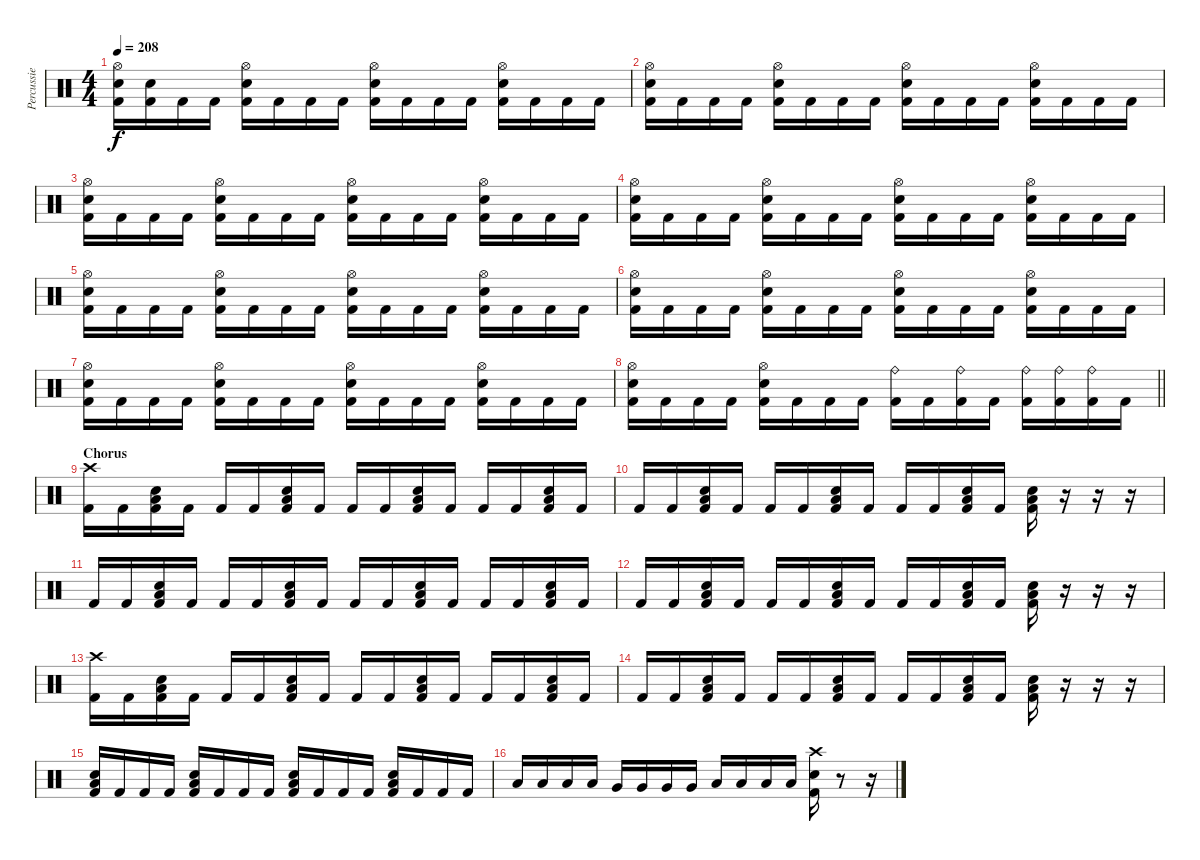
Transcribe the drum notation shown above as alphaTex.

\track ("Percussie" "Percussie") {instrument percussion}
\staff {score}
\articulation defaults
\ts (4 4)
\tempo 208
\clef neutral
\ks c
("Hi-Hat (open)" "Electric Snare (hit)" "Kick (hit) 2").16{dy f} ("Electric Snare (hit)" "Kick (hit) 2").16 "Kick (hit) 2".16 "Kick (hit) 2".16 ("Hi-Hat (open)" "Electric Snare (hit)" "Kick (hit) 2").16 "Kick (hit) 2".16 "Kick (hit) 2".16 "Kick (hit) 2".16 ("Hi-Hat (open)" "Electric Snare (hit)" "Kick (hit) 2").16 "Kick (hit) 2".16 "Kick (hit) 2".16 "Kick (hit) 2".16 ("Hi-Hat (open)" "Electric Snare (hit)" "Kick (hit) 2").16 "Kick (hit) 2".16 "Kick (hit) 2".16 "Kick (hit) 2".16 |
("Hi-Hat (open)" "Electric Snare (hit)" "Kick (hit) 2").16 "Kick (hit) 2".16 "Kick (hit) 2".16 "Kick (hit) 2".16 ("Hi-Hat (open)" "Electric Snare (hit)" "Kick (hit) 2").16 "Kick (hit) 2".16 "Kick (hit) 2".16 "Kick (hit) 2".16 ("Hi-Hat (open)" "Electric Snare (hit)" "Kick (hit) 2").16 "Kick (hit) 2".16 "Kick (hit) 2".16 "Kick (hit) 2".16 ("Hi-Hat (open)" "Electric Snare (hit)" "Kick (hit) 2").16 "Kick (hit) 2".16 "Kick (hit) 2".16 "Kick (hit) 2".16 |
("Hi-Hat (open)" "Electric Snare (hit)" "Kick (hit) 2").16 "Kick (hit) 2".16 "Kick (hit) 2".16 "Kick (hit) 2".16 ("Hi-Hat (open)" "Electric Snare (hit)" "Kick (hit) 2").16 "Kick (hit) 2".16 "Kick (hit) 2".16 "Kick (hit) 2".16 ("Hi-Hat (open)" "Electric Snare (hit)" "Kick (hit) 2").16 "Kick (hit) 2".16 "Kick (hit) 2".16 "Kick (hit) 2".16 ("Hi-Hat (open)" "Electric Snare (hit)" "Kick (hit) 2").16 "Kick (hit) 2".16 "Kick (hit) 2".16 "Kick (hit) 2".16 |
("Hi-Hat (open)" "Electric Snare (hit)" "Kick (hit) 2").16 "Kick (hit) 2".16 "Kick (hit) 2".16 "Kick (hit) 2".16 ("Hi-Hat (open)" "Electric Snare (hit)" "Kick (hit) 2").16 "Kick (hit) 2".16 "Kick (hit) 2".16 "Kick (hit) 2".16 ("Hi-Hat (open)" "Electric Snare (hit)" "Kick (hit) 2").16 "Kick (hit) 2".16 "Kick (hit) 2".16 "Kick (hit) 2".16 ("Hi-Hat (open)" "Electric Snare (hit)" "Kick (hit) 2").16 "Kick (hit) 2".16 "Kick (hit) 2".16 "Kick (hit) 2".16 |
("Hi-Hat (open)" "Electric Snare (hit)" "Kick (hit) 2").16 "Kick (hit) 2".16 "Kick (hit) 2".16 "Kick (hit) 2".16 ("Hi-Hat (open)" "Electric Snare (hit)" "Kick (hit) 2").16 "Kick (hit) 2".16 "Kick (hit) 2".16 "Kick (hit) 2".16 ("Hi-Hat (open)" "Electric Snare (hit)" "Kick (hit) 2").16 "Kick (hit) 2".16 "Kick (hit) 2".16 "Kick (hit) 2".16 ("Hi-Hat (open)" "Electric Snare (hit)" "Kick (hit) 2").16 "Kick (hit) 2".16 "Kick (hit) 2".16 "Kick (hit) 2".16 |
("Hi-Hat (open)" "Electric Snare (hit)" "Kick (hit) 2").16 "Kick (hit) 2".16 "Kick (hit) 2".16 "Kick (hit) 2".16 ("Hi-Hat (open)" "Electric Snare (hit)" "Kick (hit) 2").16 "Kick (hit) 2".16 "Kick (hit) 2".16 "Kick (hit) 2".16 ("Hi-Hat (open)" "Electric Snare (hit)" "Kick (hit) 2").16 "Kick (hit) 2".16 "Kick (hit) 2".16 "Kick (hit) 2".16 ("Hi-Hat (open)" "Electric Snare (hit)" "Kick (hit) 2").16 "Kick (hit) 2".16 "Kick (hit) 2".16 "Kick (hit) 2".16 |
("Hi-Hat (open)" "Electric Snare (hit)" "Kick (hit) 2").16 "Kick (hit) 2".16 "Kick (hit) 2".16 "Kick (hit) 2".16 ("Hi-Hat (open)" "Electric Snare (hit)" "Kick (hit) 2").16 "Kick (hit) 2".16 "Kick (hit) 2".16 "Kick (hit) 2".16 ("Hi-Hat (open)" "Electric Snare (hit)" "Kick (hit) 2").16 "Kick (hit) 2".16 "Kick (hit) 2".16 "Kick (hit) 2".16 ("Hi-Hat (open)" "Electric Snare (hit)" "Kick (hit) 2").16 "Kick (hit) 2".16 "Kick (hit) 2".16 "Kick (hit) 2".16 |
\barLineRight lightlight
("Hi-Hat (open)" "Electric Snare (hit)" "Kick (hit) 2").16 "Kick (hit) 2".16 "Kick (hit) 2".16 "Kick (hit) 2".16 ("Hi-Hat (open)" "Electric Snare (hit)" "Kick (hit) 2").16 "Kick (hit) 2".16 "Kick (hit) 2".16 "Kick (hit) 2".16 ("Ride (bell)" "Kick (hit) 2").16 "Kick (hit) 2".16 ("Ride (bell)" "Kick (hit) 2").16 "Kick (hit) 2".16 ("Ride (bell)" "Kick (hit) 2").16 ("Ride (bell)" "Kick (hit) 2").16 ("Ride (bell)" "Kick (hit) 2").16 "Kick (hit) 2".16 |
\section ("" "Chorus")
("Crash high (hit)" "Kick (hit) 2").16 "Kick (hit) 2".16 ("Low Tom (hit)" "Electric Snare (hit)" "Kick (hit) 2").16 "Kick (hit) 2".16 "Kick (hit) 2".16 "Kick (hit) 2".16 ("Low Tom (hit)" "Electric Snare (hit)" "Kick (hit) 2").16 "Kick (hit) 2".16 "Kick (hit) 2".16 "Kick (hit) 2".16 ("Low Tom (hit)" "Electric Snare (hit)" "Kick (hit) 2").16 "Kick (hit) 2".16 "Kick (hit) 2".16 "Kick (hit) 2".16 ("Low Tom (hit)" "Electric Snare (hit)" "Kick (hit) 2").16 "Kick (hit) 2".16 |
"Kick (hit) 2".16 "Kick (hit) 2".16 ("Low Tom (hit)" "Electric Snare (hit)" "Kick (hit) 2").16 "Kick (hit) 2".16 "Kick (hit) 2".16 "Kick (hit) 2".16 ("Low Tom (hit)" "Electric Snare (hit)" "Kick (hit) 2").16 "Kick (hit) 2".16 "Kick (hit) 2".16 "Kick (hit) 2".16 ("Low Tom (hit)" "Electric Snare (hit)" "Kick (hit) 2").16 "Kick (hit) 2".16 ("Low Tom (hit)" "Electric Snare (hit)" "Kick (hit) 2").16 r.16 r.16 r.16 |
"Kick (hit) 2".16 "Kick (hit) 2".16 ("Low Tom (hit)" "Electric Snare (hit)" "Kick (hit) 2").16 "Kick (hit) 2".16 "Kick (hit) 2".16 "Kick (hit) 2".16 ("Low Tom (hit)" "Electric Snare (hit)" "Kick (hit) 2").16 "Kick (hit) 2".16 "Kick (hit) 2".16 "Kick (hit) 2".16 ("Low Tom (hit)" "Electric Snare (hit)" "Kick (hit) 2").16 "Kick (hit) 2".16 "Kick (hit) 2".16 "Kick (hit) 2".16 ("Low Tom (hit)" "Electric Snare (hit)" "Kick (hit) 2").16 "Kick (hit) 2".16 |
"Kick (hit) 2".16 "Kick (hit) 2".16 ("Low Tom (hit)" "Electric Snare (hit)" "Kick (hit) 2").16 "Kick (hit) 2".16 "Kick (hit) 2".16 "Kick (hit) 2".16 ("Low Tom (hit)" "Electric Snare (hit)" "Kick (hit) 2").16 "Kick (hit) 2".16 "Kick (hit) 2".16 "Kick (hit) 2".16 ("Low Tom (hit)" "Electric Snare (hit)" "Kick (hit) 2").16 "Kick (hit) 2".16 ("Low Tom (hit)" "Electric Snare (hit)" "Kick (hit) 2").16 r.16 r.16 r.16 |
("Crash high (hit)" "Kick (hit) 2").16 "Kick (hit) 2".16 ("Low Tom (hit)" "Electric Snare (hit)" "Kick (hit) 2").16 "Kick (hit) 2".16 "Kick (hit) 2".16 "Kick (hit) 2".16 ("Low Tom (hit)" "Electric Snare (hit)" "Kick (hit) 2").16 "Kick (hit) 2".16 "Kick (hit) 2".16 "Kick (hit) 2".16 ("Low Tom (hit)" "Electric Snare (hit)" "Kick (hit) 2").16 "Kick (hit) 2".16 "Kick (hit) 2".16 "Kick (hit) 2".16 ("Low Tom (hit)" "Electric Snare (hit)" "Kick (hit) 2").16 "Kick (hit) 2".16 |
"Kick (hit) 2".16 "Kick (hit) 2".16 ("Low Tom (hit)" "Electric Snare (hit)" "Kick (hit) 2").16 "Kick (hit) 2".16 "Kick (hit) 2".16 "Kick (hit) 2".16 ("Low Tom (hit)" "Electric Snare (hit)" "Kick (hit) 2").16 "Kick (hit) 2".16 "Kick (hit) 2".16 "Kick (hit) 2".16 ("Low Tom (hit)" "Electric Snare (hit)" "Kick (hit) 2").16 "Kick (hit) 2".16 ("Low Tom (hit)" "Electric Snare (hit)" "Kick (hit) 2").16 r.16 r.16 r.16 |
("Low Tom (hit)" "Electric Snare (hit)" "Kick (hit) 2").16 "Kick (hit) 2".16 "Kick (hit) 2".16 "Kick (hit) 2".16 ("Low Tom (hit)" "Electric Snare (hit)" "Kick (hit) 2").16 "Kick (hit) 2".16 "Kick (hit) 2".16 "Kick (hit) 2".16 ("Low Tom (hit)" "Electric Snare (hit)" "Kick (hit) 2").16 "Kick (hit) 2".16 "Kick (hit) 2".16 "Kick (hit) 2".16 ("Low Tom (hit)" "Electric Snare (hit)" "Kick (hit) 2").16 "Kick (hit) 2".16 "Kick (hit) 2".16 "Kick (hit) 2".16 |
"Low Tom (hit)".16 "Low Tom (hit)".16 "Low Tom (hit)".16 "Low Tom (hit)".16 "Very Low Tom (hit)".16 "Very Low Tom (hit)".16 "Very Low Tom (hit)".16 "Very Low Tom (hit)".16 "Low Floor Tom (hit)".16 "Low Floor Tom (hit)".16 "Low Floor Tom (hit)".16 "Low Floor Tom (hit)".16 ("Crash high (hit)" "Electric Snare (hit)" "Kick (hit) 2").16 r.8 r.16
